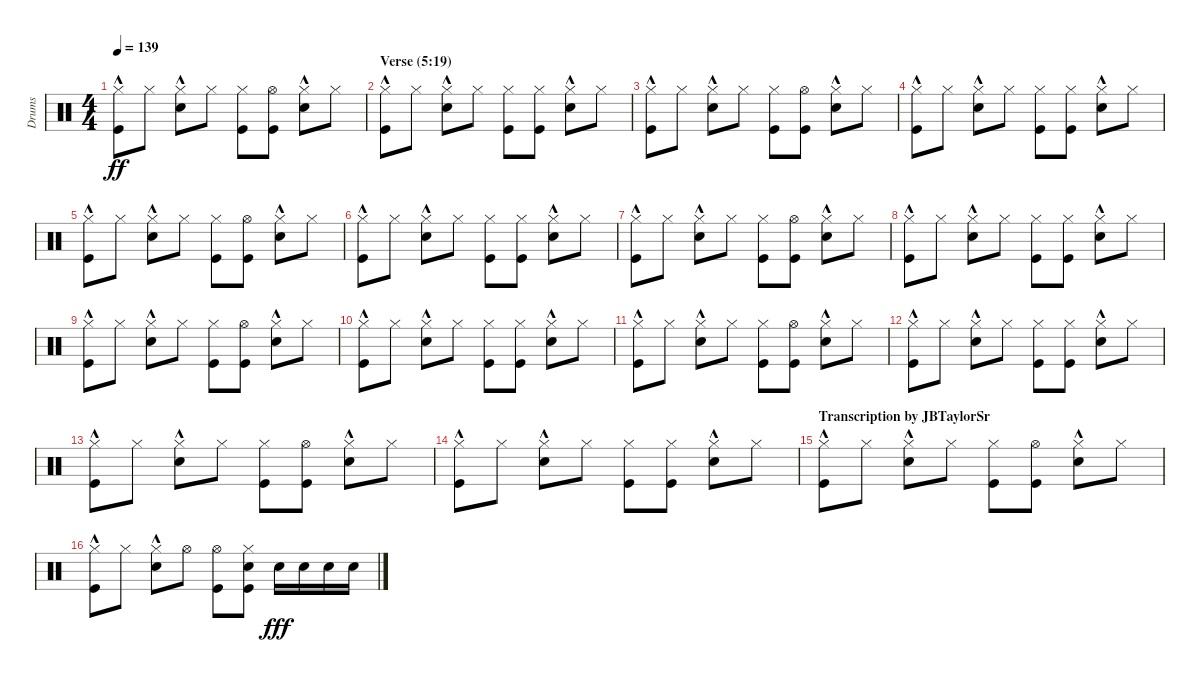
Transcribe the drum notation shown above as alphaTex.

\track ("Drums" "Drums") {instrument percussion}
\staff {score}
\articulation defaults
\ts (4 4)
\tempo 139
\clef neutral
\ks c
("Hi-Hat (closed)" "Kick (hit)"{hac}).8{dy ff} "Hi-Hat (closed)".8 ("Hi-Hat (closed)" "Snare (hit) 2"{hac}).8 "Hi-Hat (closed)".8 ("Hi-Hat (closed)" "Kick (hit)").8 ("Hi-Hat (open)" "Kick (hit)").8 ("Hi-Hat (closed)" "Snare (hit) 2"{hac}).8 "Hi-Hat (closed)".8 |
\section ("" "Verse (5:19)")
("Hi-Hat (closed)" "Kick (hit)"{hac}).8 "Hi-Hat (closed)".8 ("Hi-Hat (closed)" "Snare (hit) 2"{hac}).8 "Hi-Hat (closed)".8 ("Hi-Hat (closed)" "Kick (hit)").8 ("Hi-Hat (closed)" "Kick (hit)").8 ("Hi-Hat (closed)" "Snare (hit) 2"{hac}).8 "Hi-Hat (closed)".8 |
("Hi-Hat (closed)" "Kick (hit)"{hac}).8 "Hi-Hat (closed)".8 ("Hi-Hat (closed)" "Snare (hit) 2"{hac}).8 "Hi-Hat (closed)".8 ("Hi-Hat (closed)" "Kick (hit)").8 ("Hi-Hat (open)" "Kick (hit)").8 ("Hi-Hat (closed)" "Snare (hit) 2"{hac}).8 "Hi-Hat (closed)".8 |
("Hi-Hat (closed)" "Kick (hit)"{hac}).8 "Hi-Hat (closed)".8 ("Hi-Hat (closed)" "Snare (hit) 2"{hac}).8 "Hi-Hat (closed)".8 ("Hi-Hat (closed)" "Kick (hit)").8 ("Hi-Hat (closed)" "Kick (hit)").8 ("Hi-Hat (closed)" "Snare (hit) 2"{hac}).8 "Hi-Hat (closed)".8 |
("Hi-Hat (closed)" "Kick (hit)"{hac}).8 "Hi-Hat (closed)".8 ("Hi-Hat (closed)" "Snare (hit) 2"{hac}).8 "Hi-Hat (closed)".8 ("Hi-Hat (closed)" "Kick (hit)").8 ("Hi-Hat (open)" "Kick (hit)").8 ("Hi-Hat (closed)" "Snare (hit) 2"{hac}).8 "Hi-Hat (closed)".8 |
("Hi-Hat (closed)" "Kick (hit)"{hac}).8 "Hi-Hat (closed)".8 ("Hi-Hat (closed)" "Snare (hit) 2"{hac}).8 "Hi-Hat (closed)".8 ("Hi-Hat (closed)" "Kick (hit)").8 ("Hi-Hat (closed)" "Kick (hit)").8 ("Hi-Hat (closed)" "Snare (hit) 2"{hac}).8 "Hi-Hat (closed)".8 |
("Hi-Hat (closed)" "Kick (hit)"{hac}).8 "Hi-Hat (closed)".8 ("Hi-Hat (closed)" "Snare (hit) 2"{hac}).8 "Hi-Hat (closed)".8 ("Hi-Hat (closed)" "Kick (hit)").8 ("Hi-Hat (open)" "Kick (hit)").8 ("Hi-Hat (closed)" "Snare (hit) 2"{hac}).8 "Hi-Hat (closed)".8 |
("Hi-Hat (closed)" "Kick (hit)"{hac}).8 "Hi-Hat (closed)".8 ("Hi-Hat (closed)" "Snare (hit) 2"{hac}).8 "Hi-Hat (closed)".8 ("Hi-Hat (closed)" "Kick (hit)").8 ("Hi-Hat (closed)" "Kick (hit)").8 ("Hi-Hat (closed)" "Snare (hit) 2"{hac}).8 "Hi-Hat (closed)".8 |
("Hi-Hat (closed)" "Kick (hit)"{hac}).8 "Hi-Hat (closed)".8 ("Hi-Hat (closed)" "Snare (hit) 2"{hac}).8 "Hi-Hat (closed)".8 ("Hi-Hat (closed)" "Kick (hit)").8 ("Hi-Hat (open)" "Kick (hit)").8 ("Hi-Hat (closed)" "Snare (hit) 2"{hac}).8 "Hi-Hat (closed)".8 |
("Hi-Hat (closed)" "Kick (hit)"{hac}).8 "Hi-Hat (closed)".8 ("Hi-Hat (closed)" "Snare (hit) 2"{hac}).8 "Hi-Hat (closed)".8 ("Hi-Hat (closed)" "Kick (hit)").8 ("Hi-Hat (closed)" "Kick (hit)").8 ("Hi-Hat (closed)" "Snare (hit) 2"{hac}).8 "Hi-Hat (closed)".8 |
("Hi-Hat (closed)" "Kick (hit)"{hac}).8 "Hi-Hat (closed)".8 ("Hi-Hat (closed)" "Snare (hit) 2"{hac}).8 "Hi-Hat (closed)".8 ("Hi-Hat (closed)" "Kick (hit)").8 ("Hi-Hat (open)" "Kick (hit)").8 ("Hi-Hat (closed)" "Snare (hit) 2"{hac}).8 "Hi-Hat (closed)".8 |
("Hi-Hat (closed)" "Kick (hit)"{hac}).8 "Hi-Hat (closed)".8 ("Hi-Hat (closed)" "Snare (hit) 2"{hac}).8 "Hi-Hat (closed)".8 ("Hi-Hat (closed)" "Kick (hit)").8 ("Hi-Hat (closed)" "Kick (hit)").8 ("Hi-Hat (closed)" "Snare (hit) 2"{hac}).8 "Hi-Hat (closed)".8 |
("Hi-Hat (closed)" "Kick (hit)"{hac}).8 "Hi-Hat (closed)".8 ("Hi-Hat (closed)" "Snare (hit) 2"{hac}).8 "Hi-Hat (closed)".8 ("Hi-Hat (closed)" "Kick (hit)").8 ("Hi-Hat (open)" "Kick (hit)").8 ("Hi-Hat (closed)" "Snare (hit) 2"{hac}).8 "Hi-Hat (closed)".8 |
("Hi-Hat (closed)" "Kick (hit)"{hac}).8 "Hi-Hat (closed)".8 ("Hi-Hat (closed)" "Snare (hit) 2"{hac}).8 "Hi-Hat (closed)".8 ("Hi-Hat (closed)" "Kick (hit)").8 ("Hi-Hat (closed)" "Kick (hit)").8 ("Hi-Hat (closed)" "Snare (hit) 2"{hac}).8 "Hi-Hat (closed)".8 |
\section ("" "Transcription by JBTaylorSr")
("Hi-Hat (closed)" "Kick (hit)"{hac}).8 "Hi-Hat (closed)".8 ("Hi-Hat (closed)" "Snare (hit) 2"{hac}).8 "Hi-Hat (closed)".8 ("Hi-Hat (closed)" "Kick (hit)").8 ("Hi-Hat (open)" "Kick (hit)").8 ("Hi-Hat (closed)" "Snare (hit) 2"{hac}).8 "Hi-Hat (closed)".8 |
("Hi-Hat (closed)" "Kick (hit)"{hac}).8 "Hi-Hat (closed)".8 ("Hi-Hat (closed)" "Snare (hit) 2"{hac}).8 "Hi-Hat (open)".8 ("Hi-Hat (open)" "Kick (hit)").8 ("Hi-Hat (closed)" "Snare (hit) 2" "Kick (hit)").8 "Snare (hit) 2".16{dy fff} "Snare (hit) 2".16 "Snare (hit) 2".16 "Snare (hit) 2".16
